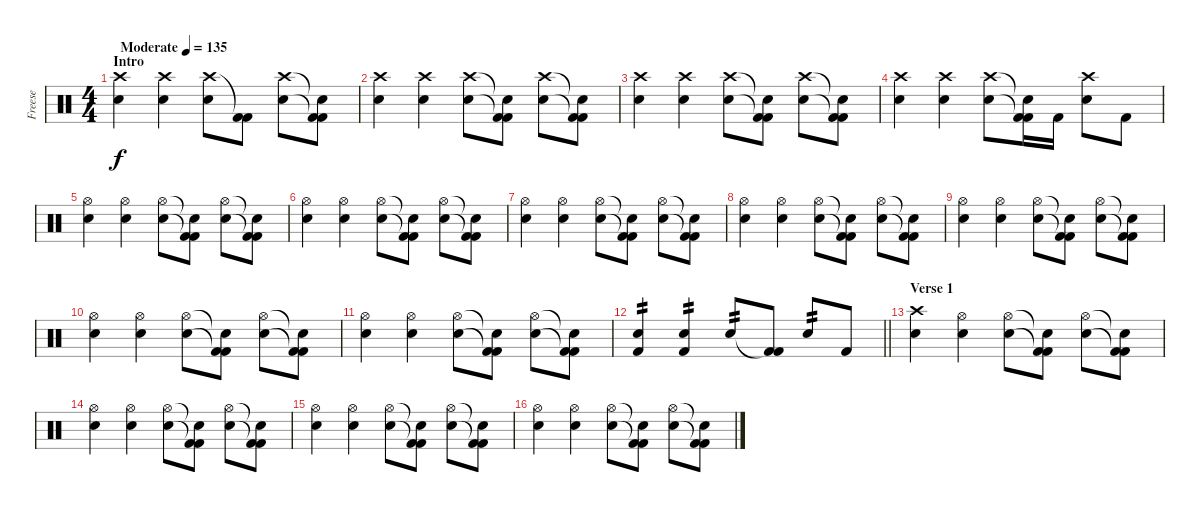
\track ("Freese" "Freese") {instrument percussion}
\staff {score}
\articulation defaults
\ts (4 4)
\section ("" "Intro")
\tempo (135 "Moderate")
\clef neutral
\ks c
("Crash high (hit)" "Electric Snare (hit)").4{dy f} ("Crash high (hit)" "Electric Snare (hit)").4 ("Crash high (hit)" "Electric Snare (hit)").8 ("Kick (hit) 2"{t} "Kick (hit) 2").8 ("Crash high (hit)" "Electric Snare (hit)").8 ("Snare (hit)"{t} "Kick (hit) 2"{t} "Kick (hit) 2").8 |
("Crash high (hit)" "Electric Snare (hit)").4 ("Crash high (hit)" "Electric Snare (hit)").4 ("Crash high (hit)" "Electric Snare (hit)").8 ("Snare (hit)"{t} "Kick (hit) 2"{t} "Kick (hit) 2").8 ("Crash high (hit)" "Electric Snare (hit)").8 ("Snare (hit)"{t} "Kick (hit) 2"{t} "Kick (hit) 2").8 |
("Crash high (hit)" "Electric Snare (hit)").4 ("Crash high (hit)" "Electric Snare (hit)").4 ("Crash high (hit)" "Electric Snare (hit)").8 ("Snare (hit)"{t} "Kick (hit) 2"{t} "Kick (hit) 2").8 ("Crash high (hit)" "Electric Snare (hit)").8 ("Snare (hit)"{t} "Kick (hit) 2"{t} "Kick (hit) 2").8 |
("Crash high (hit)" "Electric Snare (hit)").4 ("Crash high (hit)" "Electric Snare (hit)").4 ("Crash high (hit)" "Electric Snare (hit)").8 ("Snare (hit)"{t} "Kick (hit) 2"{t} "Kick (hit) 2").16 "Kick (hit) 2".16 ("Crash high (hit)" "Electric Snare (hit)").8 "Kick (hit) 2".8 |
("Hi-Hat (open)" "Electric Snare (hit)").4 ("Hi-Hat (open)" "Electric Snare (hit)").4 ("Hi-Hat (open)" "Electric Snare (hit)").8 ("Snare (hit)"{t} "Kick (hit) 2"{t} "Kick (hit) 2").8 ("Hi-Hat (open)" "Electric Snare (hit)").8 ("Snare (hit)"{t} "Kick (hit) 2"{t} "Kick (hit) 2").8 |
("Hi-Hat (open)" "Electric Snare (hit)").4 ("Hi-Hat (open)" "Electric Snare (hit)").4 ("Hi-Hat (open)" "Electric Snare (hit)").8 ("Snare (hit)"{t} "Kick (hit) 2"{t} "Kick (hit) 2").8 ("Hi-Hat (open)" "Electric Snare (hit)").8 ("Snare (hit)"{t} "Kick (hit) 2"{t} "Kick (hit) 2").8 |
("Hi-Hat (open)" "Electric Snare (hit)").4 ("Hi-Hat (open)" "Electric Snare (hit)").4 ("Hi-Hat (open)" "Electric Snare (hit)").8 ("Snare (hit)"{t} "Kick (hit) 2"{t} "Kick (hit) 2").8 ("Hi-Hat (open)" "Electric Snare (hit)").8 ("Snare (hit)"{t} "Kick (hit) 2"{t} "Kick (hit) 2").8 |
("Hi-Hat (open)" "Electric Snare (hit)").4 ("Hi-Hat (open)" "Electric Snare (hit)").4 ("Hi-Hat (open)" "Electric Snare (hit)").8 ("Snare (hit)"{t} "Kick (hit) 2"{t} "Kick (hit) 2").8 ("Hi-Hat (open)" "Electric Snare (hit)").8 ("Snare (hit)"{t} "Kick (hit) 2"{t} "Kick (hit) 2").8 |
("Hi-Hat (open)" "Electric Snare (hit)").4 ("Hi-Hat (open)" "Electric Snare (hit)").4 ("Hi-Hat (open)" "Electric Snare (hit)").8 ("Snare (hit)"{t} "Kick (hit) 2"{t} "Kick (hit) 2").8 ("Hi-Hat (open)" "Electric Snare (hit)").8 ("Snare (hit)"{t} "Kick (hit) 2"{t} "Kick (hit) 2").8 |
("Hi-Hat (open)" "Electric Snare (hit)").4 ("Hi-Hat (open)" "Electric Snare (hit)").4 ("Hi-Hat (open)" "Electric Snare (hit)").8 ("Snare (hit)"{t} "Kick (hit) 2"{t} "Kick (hit) 2").8 ("Hi-Hat (open)" "Electric Snare (hit)").8 ("Snare (hit)"{t} "Kick (hit) 2"{t} "Kick (hit) 2").8 |
("Hi-Hat (open)" "Electric Snare (hit)").4 ("Hi-Hat (open)" "Electric Snare (hit)").4 ("Hi-Hat (open)" "Electric Snare (hit)").8 ("Snare (hit)"{t} "Kick (hit) 2"{t} "Kick (hit) 2").8 ("Hi-Hat (open)" "Electric Snare (hit)").8 ("Snare (hit)"{t} "Kick (hit) 2"{t} "Kick (hit) 2").8 |
\barLineRight lightlight
("Electric Snare (hit)" "Kick (hit) 2").4{tp 2} ("Electric Snare (hit)" "Kick (hit) 2").4{tp 2} "Electric Snare (hit)".8{tp 2} ("Kick (hit) 2"{t} "Kick (hit) 2").8 "Electric Snare (hit)".8{tp 2} "Kick (hit) 2".8 |
\section ("" "Verse 1")
("Crash high (hit)" "Electric Snare (hit)").4 ("Hi-Hat (open)" "Electric Snare (hit)").4 ("Hi-Hat (open)" "Electric Snare (hit)").8 ("Snare (hit)"{t} "Kick (hit) 2"{t} "Kick (hit) 2").8 ("Hi-Hat (open)" "Electric Snare (hit)").8 ("Snare (hit)"{t} "Kick (hit) 2"{t} "Kick (hit) 2").8 |
("Hi-Hat (open)" "Electric Snare (hit)").4 ("Hi-Hat (open)" "Electric Snare (hit)").4 ("Hi-Hat (open)" "Electric Snare (hit)").8 ("Snare (hit)"{t} "Kick (hit) 2"{t} "Kick (hit) 2").8 ("Hi-Hat (open)" "Electric Snare (hit)").8 ("Snare (hit)"{t} "Kick (hit) 2"{t} "Kick (hit) 2").8 |
("Hi-Hat (open)" "Electric Snare (hit)").4 ("Hi-Hat (open)" "Electric Snare (hit)").4 ("Hi-Hat (open)" "Electric Snare (hit)").8 ("Snare (hit)"{t} "Kick (hit) 2"{t} "Kick (hit) 2").8 ("Hi-Hat (open)" "Electric Snare (hit)").8 ("Snare (hit)"{t} "Kick (hit) 2"{t} "Kick (hit) 2").8 |
("Hi-Hat (open)" "Electric Snare (hit)").4 ("Hi-Hat (open)" "Electric Snare (hit)").4 ("Hi-Hat (open)" "Electric Snare (hit)").8 ("Snare (hit)"{t} "Kick (hit) 2"{t} "Kick (hit) 2").8 ("Hi-Hat (open)" "Electric Snare (hit)").8 ("Snare (hit)"{t} "Kick (hit) 2"{t} "Kick (hit) 2").8
